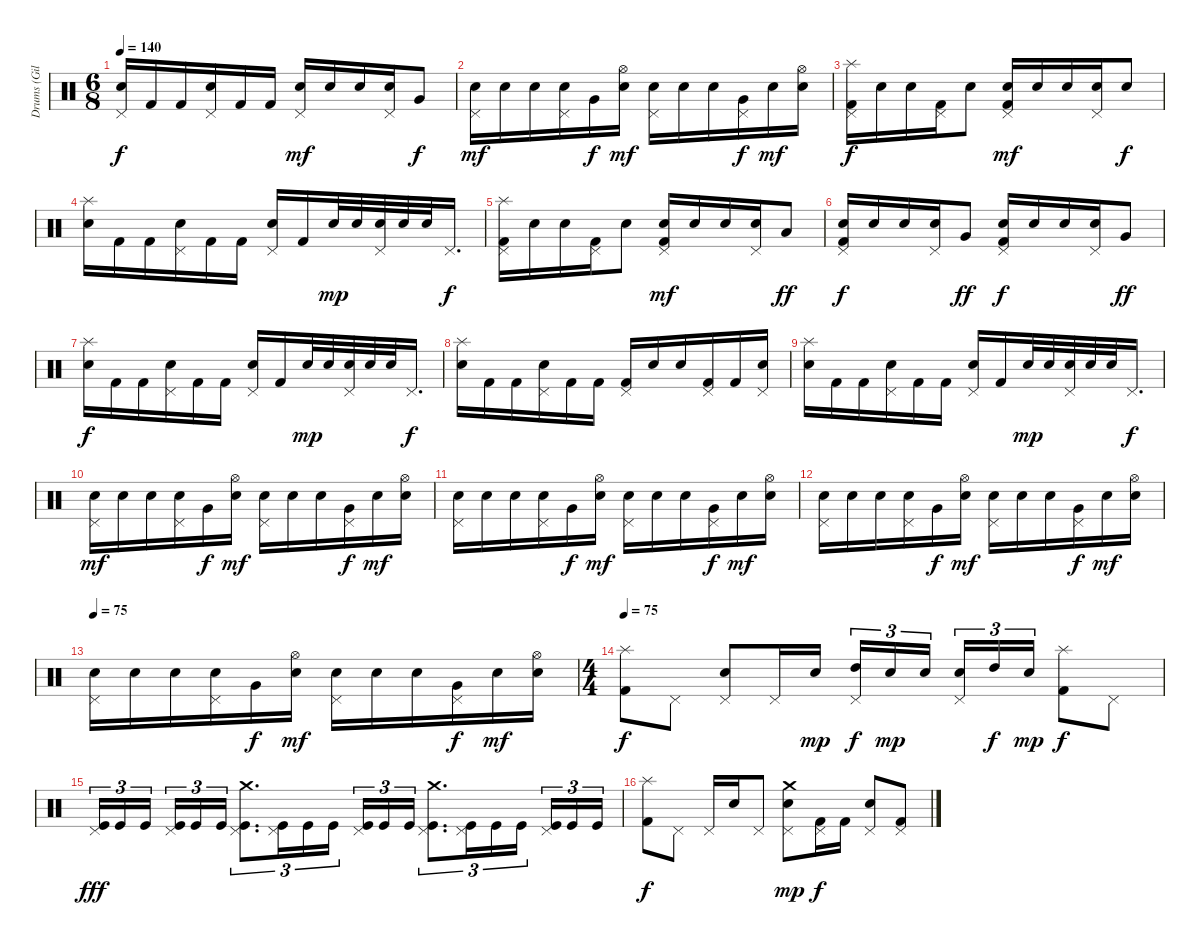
\track ("Drums (Giles)" "Drums (Gil") {instrument percussion}
\staff {score}
\articulation defaults
\ts (6 8)
\tempo 140
\clef neutral
\ks c
("Pedal Hi-Hat (hit)" "Electric Snare (hit)").16{dy f} "Kick (hit) 2".16 "Kick (hit) 2".16 ("Pedal Hi-Hat (hit)" "Electric Snare (hit)").16 "Kick (hit) 2".16 "Kick (hit) 2".16 ("Pedal Hi-Hat (hit)" "Electric Snare (hit)").16{dy mf} "Electric Snare (hit)".16 "Electric Snare (hit)".16 ("Pedal Hi-Hat (hit)" "Electric Snare (hit)").16 "Very Low Tom (hit)".8{dy f} |
("Pedal Hi-Hat (hit)" "Electric Snare (hit)").16{dy mf} "Electric Snare (hit)".16 "Electric Snare (hit)".16 ("Pedal Hi-Hat (hit)" "Electric Snare (hit)").16 "Very Low Tom (hit)".16{dy f} ("Hi-Hat (open)" "Electric Snare (hit)").16{dy mf} ("Pedal Hi-Hat (hit)" "Electric Snare (hit)").16 "Electric Snare (hit)".16 "Electric Snare (hit)".16 ("Pedal Hi-Hat (hit)" "Very Low Tom (hit)").16{dy f} "Electric Snare (hit)".16{dy mf} ("Hi-Hat (open)" "Electric Snare (hit)").16 |
("Splash (hit)" "Pedal Hi-Hat (hit)" "Kick (hit) 2").16{dy f} "Electric Snare (hit)".16 "Electric Snare (hit)".16 ("Pedal Hi-Hat (hit)" "Kick (hit) 2").16 "Electric Snare (hit)".8 ("Pedal Hi-Hat (hit)" "Electric Snare (hit)" "Kick (hit) 2").16{dy mf} "Electric Snare (hit)".16 "Electric Snare (hit)".16 ("Pedal Hi-Hat (hit)" "Electric Snare (hit)").16 "Electric Snare (hit)".8{dy f} |
("Splash (hit)" "Electric Snare (hit)").16 "Kick (hit) 2".16 "Kick (hit) 2".16 ("Pedal Hi-Hat (hit)" "Electric Snare (hit)").16 "Kick (hit) 2".16 "Kick (hit) 2".16 ("Pedal Hi-Hat (hit)" "Electric Snare (hit)").16 "Kick (hit) 2".16 "Electric Snare (hit)".32{dy mp} "Electric Snare (hit)".32 ("Pedal Hi-Hat (hit)" "Electric Snare (hit)").32 "Electric Snare (hit)".32 "Electric Snare (hit)".32 "Pedal Hi-Hat (hit)".16{d dy f} |
("Splash (hit)" "Pedal Hi-Hat (hit)" "Kick (hit) 2").16 "Electric Snare (hit)".16 "Electric Snare (hit)".16 ("Pedal Hi-Hat (hit)" "Kick (hit) 2").16 "Electric Snare (hit)".8 ("Pedal Hi-Hat (hit)" "Electric Snare (hit)" "Kick (hit) 2").16{dy mf} "Electric Snare (hit)".16 "Electric Snare (hit)".16 ("Pedal Hi-Hat (hit)" "Electric Snare (hit)").16 "Low Tom (hit)".8{dy ff} |
("Pedal Hi-Hat (hit)" "Electric Snare (hit)" "Kick (hit) 2").16{dy f} "Electric Snare (hit)".16 "Electric Snare (hit)".16 ("Pedal Hi-Hat (hit)" "Electric Snare (hit)").16 "Very Low Tom (hit)".8{dy ff} ("Pedal Hi-Hat (hit)" "Electric Snare (hit)" "Kick (hit) 2").16{dy f} "Electric Snare (hit)".16 "Electric Snare (hit)".16 ("Pedal Hi-Hat (hit)" "Electric Snare (hit)").16 "Very Low Tom (hit)".8{dy ff} |
("Splash (hit)" "Electric Snare (hit)").16{dy f} "Kick (hit) 2".16 "Kick (hit) 2".16 ("Pedal Hi-Hat (hit)" "Electric Snare (hit)").16 "Kick (hit) 2".16 "Kick (hit) 2".16 ("Pedal Hi-Hat (hit)" "Electric Snare (hit)").16 "Kick (hit) 2".16 "Electric Snare (hit)".32{dy mp} "Electric Snare (hit)".32 ("Pedal Hi-Hat (hit)" "Electric Snare (hit)").32 "Electric Snare (hit)".32 "Electric Snare (hit)".32 "Pedal Hi-Hat (hit)".16{d dy f} |
("Splash (hit)" "Electric Snare (hit)").16 "Kick (hit) 2".16 "Kick (hit) 2".16 ("Pedal Hi-Hat (hit)" "Electric Snare (hit)").16 "Kick (hit) 2".16 "Kick (hit) 2".16 ("Pedal Hi-Hat (hit)" "Kick (hit) 2").16 "Electric Snare (hit)".16 "Electric Snare (hit)".16 ("Pedal Hi-Hat (hit)" "Kick (hit) 2").16 "Kick (hit) 2".16 ("Pedal Hi-Hat (hit)" "Electric Snare (hit)").16 |
("Splash (hit)" "Electric Snare (hit)").16 "Kick (hit) 2".16 "Kick (hit) 2".16 ("Pedal Hi-Hat (hit)" "Electric Snare (hit)").16 "Kick (hit) 2".16 "Kick (hit) 2".16 ("Pedal Hi-Hat (hit)" "Electric Snare (hit)").16 "Kick (hit) 2".16 "Electric Snare (hit)".32{dy mp} "Electric Snare (hit)".32 ("Pedal Hi-Hat (hit)" "Electric Snare (hit)").32 "Electric Snare (hit)".32 "Electric Snare (hit)".32 "Pedal Hi-Hat (hit)".16{d dy f} |
("Pedal Hi-Hat (hit)" "Electric Snare (hit)").16{dy mf} "Electric Snare (hit)".16 "Electric Snare (hit)".16 ("Pedal Hi-Hat (hit)" "Electric Snare (hit)").16 "Very Low Tom (hit)".16{dy f} ("Hi-Hat (open)" "Electric Snare (hit)").16{dy mf} ("Pedal Hi-Hat (hit)" "Electric Snare (hit)").16 "Electric Snare (hit)".16 "Electric Snare (hit)".16 ("Pedal Hi-Hat (hit)" "Very Low Tom (hit)").16{dy f} "Electric Snare (hit)".16{dy mf} ("Hi-Hat (open)" "Electric Snare (hit)").16 |
("Pedal Hi-Hat (hit)" "Electric Snare (hit)").16 "Electric Snare (hit)".16 "Electric Snare (hit)".16 ("Pedal Hi-Hat (hit)" "Electric Snare (hit)").16 "Very Low Tom (hit)".16{dy f} ("Hi-Hat (open)" "Electric Snare (hit)").16{dy mf} ("Pedal Hi-Hat (hit)" "Electric Snare (hit)").16 "Electric Snare (hit)".16 "Electric Snare (hit)".16 ("Pedal Hi-Hat (hit)" "Very Low Tom (hit)").16{dy f} "Electric Snare (hit)".16{dy mf} ("Hi-Hat (open)" "Electric Snare (hit)").16 |
("Pedal Hi-Hat (hit)" "Electric Snare (hit)").16 "Electric Snare (hit)".16 "Electric Snare (hit)".16 ("Pedal Hi-Hat (hit)" "Electric Snare (hit)").16 "Very Low Tom (hit)".16{dy f} ("Hi-Hat (open)" "Electric Snare (hit)").16{dy mf} ("Pedal Hi-Hat (hit)" "Electric Snare (hit)").16 "Electric Snare (hit)".16 "Electric Snare (hit)".16 ("Pedal Hi-Hat (hit)" "Very Low Tom (hit)").16{dy f} "Electric Snare (hit)".16{dy mf} ("Hi-Hat (open)" "Electric Snare (hit)").16 |
\tempo 75
("Pedal Hi-Hat (hit)" "Electric Snare (hit)").16 "Electric Snare (hit)".16 "Electric Snare (hit)".16 ("Pedal Hi-Hat (hit)" "Electric Snare (hit)").16 "Very Low Tom (hit)".16{dy f} ("Hi-Hat (open)" "Electric Snare (hit)").16{dy mf} ("Pedal Hi-Hat (hit)" "Electric Snare (hit)").16 "Electric Snare (hit)".16 "Electric Snare (hit)".16 ("Pedal Hi-Hat (hit)" "Very Low Tom (hit)").16{dy f} "Electric Snare (hit)".16{dy mf} ("Hi-Hat (open)" "Electric Snare (hit)").16 |
\ts (4 4)
\tempo 75
("Splash (hit)" "Kick (hit) 2").8{dy f volume 14} "Pedal Hi-Hat (hit)".8 ("Pedal Hi-Hat (hit)" "Electric Snare (hit)").8 "Pedal Hi-Hat (hit)".16 "Electric Snare (hit)".16{dy mp} ("Pedal Hi-Hat (hit)" "High Tom (hit)").16{tu (3 2) dy f} "Electric Snare (hit)".16{tu (3 2) dy mp} "Electric Snare (hit)".16{tu (3 2) beam splitsecondary} ("Pedal Hi-Hat (hit)" "Electric Snare (hit)").16{tu (3 2)} "High Tom (hit)".16{tu (3 2) dy f} "Electric Snare (hit)".16{tu (3 2) dy mp} ("Splash (hit)" "Kick (hit) 2").8{dy f} "Pedal Hi-Hat (hit)".8 |
("Pedal Hi-Hat (hit)" "Kick (hit)").16{tu (3 2) dy fff} "Kick (hit)".16{tu (3 2)} "Kick (hit)".16{tu (3 2) beam splitsecondary} ("Pedal Hi-Hat (hit)" "Kick (hit)").16{tu (3 2)} "Kick (hit)".16{tu (3 2)} "Kick (hit)".16{tu (3 2)} ("Crash medium (hit)" "Pedal Hi-Hat (hit)" "Kick (hit)").8{d tu (3 2)} ("Pedal Hi-Hat (hit)" "Kick (hit)").16{tu (3 2)} "Kick (hit)".16{tu (3 2)} "Kick (hit)".16{tu (3 2)} ("Pedal Hi-Hat (hit)" "Kick (hit)").16{tu (3 2)} "Kick (hit)".16{tu (3 2)} "Kick (hit)".16{tu (3 2)} ("Crash medium (hit)" "Pedal Hi-Hat (hit)" "Kick (hit)").8{d tu (3 2)} ("Pedal Hi-Hat (hit)" "Kick (hit)").16{tu (3 2)} "Kick (hit)".16{tu (3 2)} "Kick (hit)".16{tu (3 2) beam splitsecondary} ("Pedal Hi-Hat (hit)" "Kick (hit)").16{tu (3 2)} "Kick (hit)".16{tu (3 2)} "Kick (hit)".16{tu (3 2)} |
("Splash (hit)" "Kick (hit) 2").8{dy f} "Pedal Hi-Hat (hit)".8 "Pedal Hi-Hat (hit)".16 "Electric Snare (hit)".16 "Pedal Hi-Hat (hit)".8 ("Crash medium (hit)" "Pedal Hi-Hat (hit)" "Electric Snare (hit)").8{dy mp} ("Pedal Hi-Hat (hit)" "Kick (hit) 2").16{dy f} "Kick (hit) 2".16 ("Pedal Hi-Hat (hit)" "Electric Snare (hit)").8 ("Pedal Hi-Hat (hit)" "Kick (hit) 2").8
